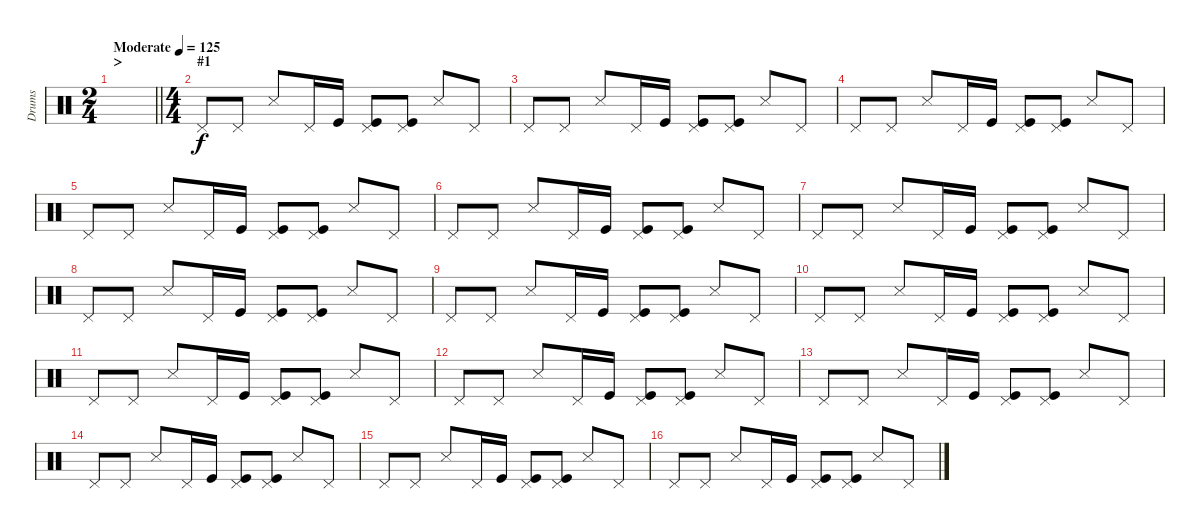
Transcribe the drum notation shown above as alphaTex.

\track ("Drums" "Drums") {instrument percussion}
\staff {score}
\articulation defaults
\ts (2 4)
\section ("" ">")
\tempo (125 "Moderate")
\clef neutral
\barLineRight lightlight
\ks c
|
\ts (4 4)
\section ("" "#1")
"Pedal Hi-Hat (hit)".8 "Pedal Hi-Hat (hit)".8 "Snare (side stick) 3".8 "Pedal Hi-Hat (hit)".16 "Kick (hit)".16 ("Pedal Hi-Hat (hit)" "Kick (hit)").8 ("Pedal Hi-Hat (hit)" "Kick (hit)").8 "Snare (side stick) 3".8 "Pedal Hi-Hat (hit)".8 |
"Pedal Hi-Hat (hit)".8 "Pedal Hi-Hat (hit)".8 "Snare (side stick) 3".8 "Pedal Hi-Hat (hit)".16 "Kick (hit)".16 ("Pedal Hi-Hat (hit)" "Kick (hit)").8 ("Pedal Hi-Hat (hit)" "Kick (hit)").8 "Snare (side stick) 3".8 "Pedal Hi-Hat (hit)".8 |
"Pedal Hi-Hat (hit)".8 "Pedal Hi-Hat (hit)".8 "Snare (side stick) 3".8 "Pedal Hi-Hat (hit)".16 "Kick (hit)".16 ("Pedal Hi-Hat (hit)" "Kick (hit)").8 ("Pedal Hi-Hat (hit)" "Kick (hit)").8 "Snare (side stick) 3".8 "Pedal Hi-Hat (hit)".8 |
"Pedal Hi-Hat (hit)".8 "Pedal Hi-Hat (hit)".8 "Snare (side stick) 3".8 "Pedal Hi-Hat (hit)".16 "Kick (hit)".16 ("Pedal Hi-Hat (hit)" "Kick (hit)").8 ("Pedal Hi-Hat (hit)" "Kick (hit)").8 "Snare (side stick) 3".8 "Pedal Hi-Hat (hit)".8 |
"Pedal Hi-Hat (hit)".8 "Pedal Hi-Hat (hit)".8 "Snare (side stick) 3".8 "Pedal Hi-Hat (hit)".16 "Kick (hit)".16 ("Pedal Hi-Hat (hit)" "Kick (hit)").8 ("Pedal Hi-Hat (hit)" "Kick (hit)").8 "Snare (side stick) 3".8 "Pedal Hi-Hat (hit)".8 |
"Pedal Hi-Hat (hit)".8 "Pedal Hi-Hat (hit)".8 "Snare (side stick) 3".8 "Pedal Hi-Hat (hit)".16 "Kick (hit)".16 ("Pedal Hi-Hat (hit)" "Kick (hit)").8 ("Pedal Hi-Hat (hit)" "Kick (hit)").8 "Snare (side stick) 3".8 "Pedal Hi-Hat (hit)".8 |
"Pedal Hi-Hat (hit)".8 "Pedal Hi-Hat (hit)".8 "Snare (side stick) 3".8 "Pedal Hi-Hat (hit)".16 "Kick (hit)".16 ("Pedal Hi-Hat (hit)" "Kick (hit)").8 ("Pedal Hi-Hat (hit)" "Kick (hit)").8 "Snare (side stick) 3".8 "Pedal Hi-Hat (hit)".8 |
"Pedal Hi-Hat (hit)".8 "Pedal Hi-Hat (hit)".8 "Snare (side stick) 3".8 "Pedal Hi-Hat (hit)".16 "Kick (hit)".16 ("Pedal Hi-Hat (hit)" "Kick (hit)").8 ("Pedal Hi-Hat (hit)" "Kick (hit)").8 "Snare (side stick) 3".8 "Pedal Hi-Hat (hit)".8 |
"Pedal Hi-Hat (hit)".8 "Pedal Hi-Hat (hit)".8 "Snare (side stick) 3".8 "Pedal Hi-Hat (hit)".16 "Kick (hit)".16 ("Pedal Hi-Hat (hit)" "Kick (hit)").8 ("Pedal Hi-Hat (hit)" "Kick (hit)").8 "Snare (side stick) 3".8 "Pedal Hi-Hat (hit)".8 |
"Pedal Hi-Hat (hit)".8 "Pedal Hi-Hat (hit)".8 "Snare (side stick) 3".8 "Pedal Hi-Hat (hit)".16 "Kick (hit)".16 ("Pedal Hi-Hat (hit)" "Kick (hit)").8 ("Pedal Hi-Hat (hit)" "Kick (hit)").8 "Snare (side stick) 3".8 "Pedal Hi-Hat (hit)".8 |
"Pedal Hi-Hat (hit)".8 "Pedal Hi-Hat (hit)".8 "Snare (side stick) 3".8 "Pedal Hi-Hat (hit)".16 "Kick (hit)".16 ("Pedal Hi-Hat (hit)" "Kick (hit)").8 ("Pedal Hi-Hat (hit)" "Kick (hit)").8 "Snare (side stick) 3".8 "Pedal Hi-Hat (hit)".8 |
"Pedal Hi-Hat (hit)".8 "Pedal Hi-Hat (hit)".8 "Snare (side stick) 3".8 "Pedal Hi-Hat (hit)".16 "Kick (hit)".16 ("Pedal Hi-Hat (hit)" "Kick (hit)").8 ("Pedal Hi-Hat (hit)" "Kick (hit)").8 "Snare (side stick) 3".8 "Pedal Hi-Hat (hit)".8 |
"Pedal Hi-Hat (hit)".8 "Pedal Hi-Hat (hit)".8 "Snare (side stick) 3".8 "Pedal Hi-Hat (hit)".16 "Kick (hit)".16 ("Pedal Hi-Hat (hit)" "Kick (hit)").8 ("Pedal Hi-Hat (hit)" "Kick (hit)").8 "Snare (side stick) 3".8 "Pedal Hi-Hat (hit)".8 |
"Pedal Hi-Hat (hit)".8 "Pedal Hi-Hat (hit)".8 "Snare (side stick) 3".8 "Pedal Hi-Hat (hit)".16 "Kick (hit)".16 ("Pedal Hi-Hat (hit)" "Kick (hit)").8 ("Pedal Hi-Hat (hit)" "Kick (hit)").8 "Snare (side stick) 3".8 "Pedal Hi-Hat (hit)".8 |
"Pedal Hi-Hat (hit)".8 "Pedal Hi-Hat (hit)".8 "Snare (side stick) 3".8 "Pedal Hi-Hat (hit)".16 "Kick (hit)".16 ("Pedal Hi-Hat (hit)" "Kick (hit)").8 ("Pedal Hi-Hat (hit)" "Kick (hit)").8 "Snare (side stick) 3".8 "Pedal Hi-Hat (hit)".8
